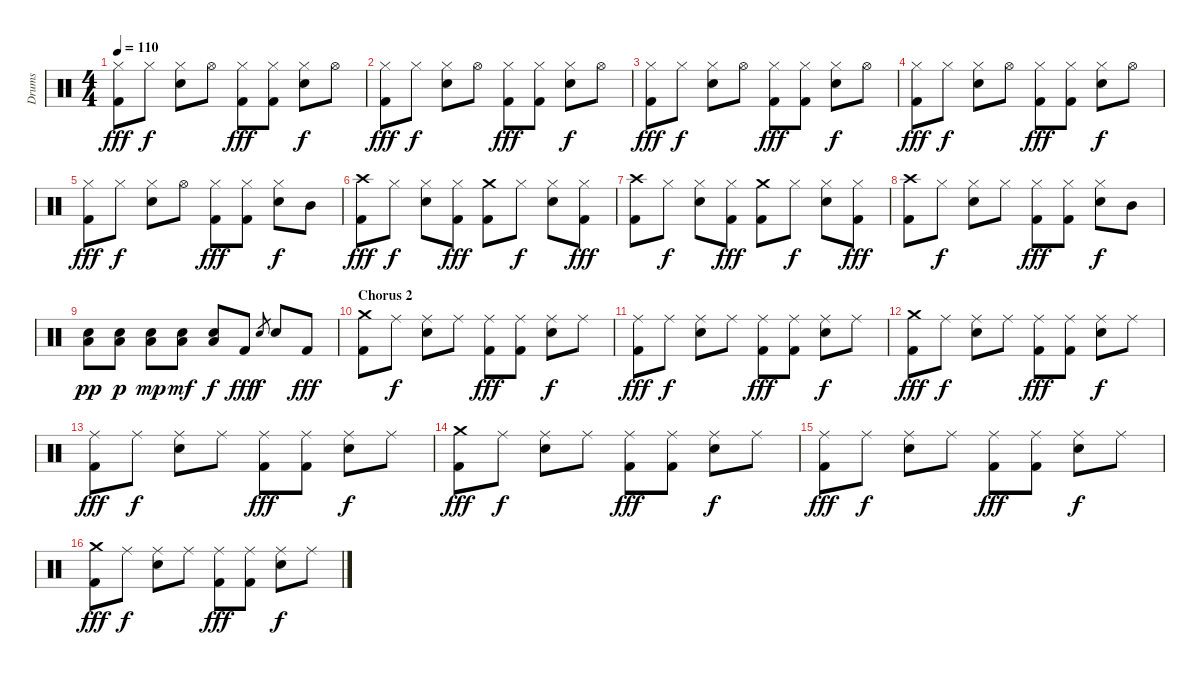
\track ("Drums" "Drums") {instrument percussion}
\staff {score}
\articulation defaults
\ts (4 4)
\tempo 110
\clef neutral
\ks c
("Hi-Hat (closed)" "Kick (hit) 2").8{dy fff} "Hi-Hat (closed)".8{dy f} ("Hi-Hat (closed)" "Snare (hit) 2").8 "Hi-Hat (open)".8 ("Hi-Hat (closed)" "Kick (hit) 2").8{dy fff} ("Hi-Hat (closed)" "Kick (hit) 2").8 ("Hi-Hat (closed)" "Snare (hit) 2").8{dy f} "Hi-Hat (open)".8 |
("Hi-Hat (closed)" "Kick (hit) 2").8{dy fff} "Hi-Hat (closed)".8{dy f} ("Hi-Hat (closed)" "Snare (hit) 2").8 "Hi-Hat (open)".8 ("Hi-Hat (closed)" "Kick (hit) 2").8{dy fff} ("Hi-Hat (closed)" "Kick (hit) 2").8 ("Hi-Hat (closed)" "Snare (hit) 2").8{dy f} "Hi-Hat (open)".8 |
("Hi-Hat (closed)" "Kick (hit) 2").8{dy fff} "Hi-Hat (closed)".8{dy f} ("Hi-Hat (closed)" "Snare (hit) 2").8 "Hi-Hat (open)".8 ("Hi-Hat (closed)" "Kick (hit) 2").8{dy fff} ("Hi-Hat (closed)" "Kick (hit) 2").8 ("Hi-Hat (closed)" "Snare (hit) 2").8{dy f} "Hi-Hat (open)".8 |
("Hi-Hat (closed)" "Kick (hit) 2").8{dy fff} "Hi-Hat (closed)".8{dy f} ("Hi-Hat (closed)" "Snare (hit) 2").8 "Hi-Hat (open)".8 ("Hi-Hat (closed)" "Kick (hit) 2").8{dy fff} ("Hi-Hat (closed)" "Kick (hit) 2").8 ("Hi-Hat (closed)" "Snare (hit) 2").8{dy f} "Hi-Hat (open)".8 |
("Hi-Hat (closed)" "Kick (hit) 2").8{dy fff} "Hi-Hat (closed)".8{dy f} ("Hi-Hat (closed)" "Snare (hit) 2").8 "Hi-Hat (open)".8 ("Hi-Hat (closed)" "Kick (hit) 2").8{dy fff} ("Hi-Hat (closed)" "Kick (hit) 2").8 ("Hi-Hat (closed)" "Snare (hit) 2").8{dy f} "Mid Tom (hit)".8 |
("Crash high (hit)" "Kick (hit) 2").8{dy fff} "Hi-Hat (closed)".8{dy f} ("Hi-Hat (closed)" "Snare (hit) 2").8 ("Hi-Hat (closed)" "Kick (hit) 2").8{dy fff} ("Crash medium (hit)" "Kick (hit) 2").8 "Hi-Hat (closed)".8{dy f} ("Hi-Hat (closed)" "Snare (hit) 2").8 ("Hi-Hat (closed)" "Kick (hit) 2").8{dy fff} |
("Crash high (hit)" "Kick (hit) 2").8 "Hi-Hat (closed)".8{dy f} ("Hi-Hat (closed)" "Snare (hit) 2").8 ("Hi-Hat (closed)" "Kick (hit) 2").8{dy fff} ("Crash medium (hit)" "Kick (hit) 2").8 "Hi-Hat (closed)".8{dy f} ("Hi-Hat (closed)" "Snare (hit) 2").8 ("Hi-Hat (closed)" "Kick (hit) 2").8{dy fff} |
("Crash high (hit)" "Kick (hit) 2").8 "Hi-Hat (closed)".8{dy f} ("Hi-Hat (closed)" "Snare (hit) 2").8 "Hi-Hat (closed)".8 ("Hi-Hat (closed)" "Kick (hit) 2").8{dy fff} ("Hi-Hat (closed)" "Kick (hit) 2").8 ("Hi-Hat (closed)" "Snare (hit) 2").8{dy f} "Mid Tom (hit)".8 |
("Snare (hit) 2" "Low Floor Tom (hit)").8{dy pp} ("Snare (hit) 2" "Low Floor Tom (hit)").8{dy p} ("Snare (hit) 2" "Low Floor Tom (hit)").8{dy mp} ("Snare (hit) 2" "Low Floor Tom (hit)").8{dy mf} ("Snare (hit) 2" "Low Floor Tom (hit)").8{dy f} "Kick (hit) 2".8{dy fff} "Snare (hit) 2".8{gr dy f} "Snare (hit) 2".8 "Kick (hit) 2".8{dy fff} |
\section ("" "Chorus 2")
("Crash medium (hit)" "Kick (hit) 2").8 "Ride (middle)".8{dy f} ("Ride (middle)" "Snare (hit) 2").8 "Ride (middle)".8 ("Ride (middle)" "Kick (hit) 2").8{dy fff} ("Ride (middle)" "Kick (hit) 2").8 ("Ride (middle)" "Snare (hit) 2").8{dy f} "Ride (middle)".8 |
("Ride (middle)" "Kick (hit) 2").8{dy fff} "Ride (middle)".8{dy f} ("Ride (middle)" "Snare (hit) 2").8 "Ride (middle)".8 ("Ride (middle)" "Kick (hit) 2").8{dy fff} ("Ride (middle)" "Kick (hit) 2").8 ("Ride (middle)" "Snare (hit) 2").8{dy f} "Ride (middle)".8 |
("Crash medium (hit)" "Kick (hit) 2").8{dy fff} "Ride (middle)".8{dy f} ("Ride (middle)" "Snare (hit) 2").8 "Ride (middle)".8 ("Ride (middle)" "Kick (hit) 2").8{dy fff} ("Ride (middle)" "Kick (hit) 2").8 ("Ride (middle)" "Snare (hit) 2").8{dy f} "Ride (middle)".8 |
("Ride (middle)" "Kick (hit) 2").8{dy fff} "Ride (middle)".8{dy f} ("Ride (middle)" "Snare (hit) 2").8 "Ride (middle)".8 ("Ride (middle)" "Kick (hit) 2").8{dy fff} ("Ride (middle)" "Kick (hit) 2").8 ("Ride (middle)" "Snare (hit) 2").8{dy f} "Ride (middle)".8 |
("Crash medium (hit)" "Kick (hit) 2").8{dy fff} "Ride (middle)".8{dy f} ("Ride (middle)" "Snare (hit) 2").8 "Ride (middle)".8 ("Ride (middle)" "Kick (hit) 2").8{dy fff} ("Ride (middle)" "Kick (hit) 2").8 ("Ride (middle)" "Snare (hit) 2").8{dy f} "Ride (middle)".8 |
("Ride (middle)" "Kick (hit) 2").8{dy fff} "Ride (middle)".8{dy f} ("Ride (middle)" "Snare (hit) 2").8 "Ride (middle)".8 ("Ride (middle)" "Kick (hit) 2").8{dy fff} ("Ride (middle)" "Kick (hit) 2").8 ("Ride (middle)" "Snare (hit) 2").8{dy f} "Ride (middle)".8 |
("Crash medium (hit)" "Kick (hit) 2").8{dy fff} "Ride (middle)".8{dy f} ("Ride (middle)" "Snare (hit) 2").8 "Ride (middle)".8 ("Ride (middle)" "Kick (hit) 2").8{dy fff} ("Ride (middle)" "Kick (hit) 2").8 ("Ride (middle)" "Snare (hit) 2").8{dy f} "Ride (middle)".8
